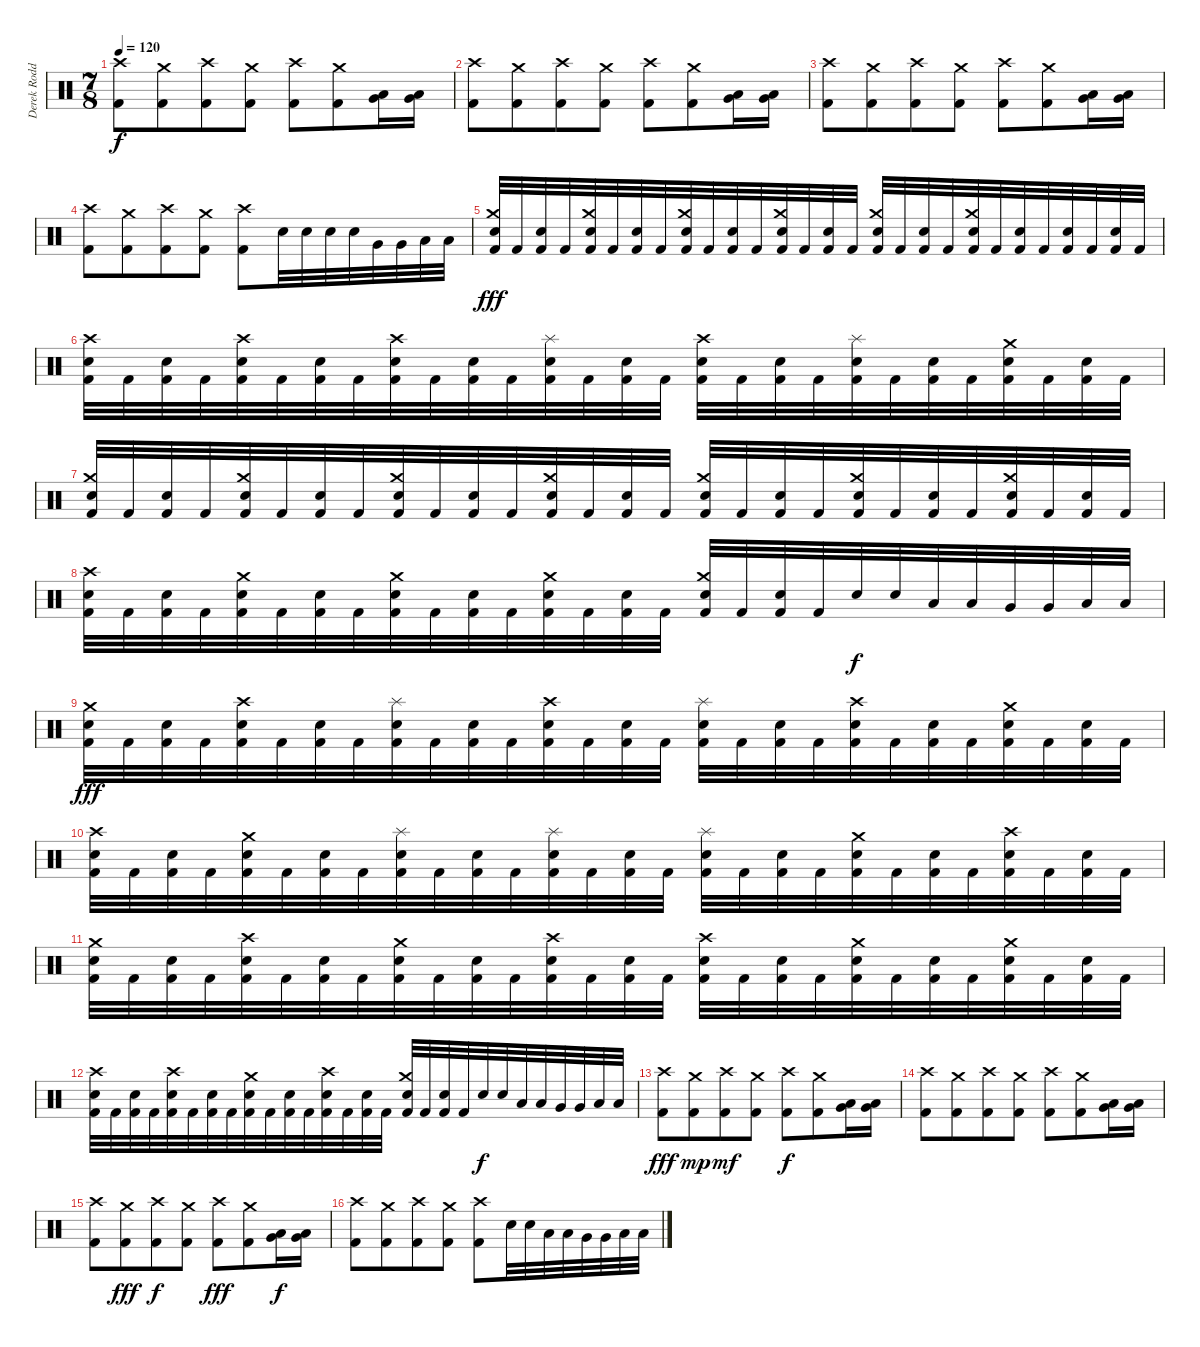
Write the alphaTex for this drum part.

\track ("Derek Roddy" "Derek Rodd") {instrument percussion}
\staff {score}
\articulation defaults
\ts (7 8)
\tempo 120
\clef neutral
\ks c
("Crash high (hit)" "Kick (hit) 2").8{dy f} ("Crash medium (hit)" "Kick (hit) 2").8 ("Crash high (hit)" "Kick (hit) 2").8 ("Crash medium (hit)" "Kick (hit) 2").8 ("Crash high (hit)" "Kick (hit) 2").8 ("Crash medium (hit)" "Kick (hit) 2").8 ("Low Tom (hit)" "Very Low Tom (hit)").16 ("Very Low Tom (hit)" "Low Floor Tom (hit)").16 |
("Crash high (hit)" "Kick (hit) 2").8 ("Crash medium (hit)" "Kick (hit) 2").8 ("Crash high (hit)" "Kick (hit) 2").8 ("Crash medium (hit)" "Kick (hit) 2").8 ("Crash high (hit)" "Kick (hit) 2").8 ("Crash medium (hit)" "Kick (hit) 2").8 ("Low Tom (hit)" "Very Low Tom (hit)").16 ("Very Low Tom (hit)" "Low Floor Tom (hit)").16 |
("Crash high (hit)" "Kick (hit) 2").8 ("Crash medium (hit)" "Kick (hit) 2").8 ("Crash high (hit)" "Kick (hit) 2").8 ("Crash medium (hit)" "Kick (hit) 2").8 ("Crash high (hit)" "Kick (hit) 2").8 ("Crash medium (hit)" "Kick (hit) 2").8 ("Low Tom (hit)" "Very Low Tom (hit)").16 ("Very Low Tom (hit)" "Low Floor Tom (hit)").16 |
("Crash high (hit)" "Kick (hit) 2").8 ("Crash medium (hit)" "Kick (hit) 2").8 ("Crash high (hit)" "Kick (hit) 2").8 ("Crash medium (hit)" "Kick (hit) 2").8 ("Crash high (hit)" "Kick (hit) 2").8 "Electric Snare (hit)".32 "Electric Snare (hit)".32 "Electric Snare (hit)".32 "Electric Snare (hit)".32 "Very Low Tom (hit)".32 "Very Low Tom (hit)".32 "Low Floor Tom (hit)".32 "Low Floor Tom (hit)".32 |
("Crash medium (hit)" "Electric Snare (hit)" "Kick (hit) 2").32{dy fff} "Kick (hit) 2".32 ("Electric Snare (hit)" "Kick (hit) 2").32 "Kick (hit) 2".32 ("Crash medium (hit)" "Electric Snare (hit)" "Kick (hit) 2").32 "Kick (hit) 2".32 ("Electric Snare (hit)" "Kick (hit) 2").32 "Kick (hit) 2".32 ("Crash medium (hit)" "Electric Snare (hit)" "Kick (hit) 2").32 "Kick (hit) 2".32 ("Electric Snare (hit)" "Kick (hit) 2").32 "Kick (hit) 2".32 ("Crash medium (hit)" "Electric Snare (hit)" "Kick (hit) 2").32 "Kick (hit) 2".32 ("Electric Snare (hit)" "Kick (hit) 2").32 "Kick (hit) 2".32 ("Crash medium (hit)" "Electric Snare (hit)" "Kick (hit) 2").32 "Kick (hit) 2".32 ("Electric Snare (hit)" "Kick (hit) 2").32 "Kick (hit) 2".32 ("Crash medium (hit)" "Electric Snare (hit)" "Kick (hit) 2").32 "Kick (hit) 2".32 ("Electric Snare (hit)" "Kick (hit) 2").32 "Kick (hit) 2".32 ("Electric Snare (hit)" "Kick (hit) 2").32 "Kick (hit) 2".32 ("Electric Snare (hit)" "Kick (hit) 2").32 "Kick (hit) 2".32 |
("Crash high (hit)" "Electric Snare (hit)" "Kick (hit) 2").32 "Kick (hit) 2".32 ("Electric Snare (hit)" "Kick (hit) 2").32 "Kick (hit) 2".32 ("Crash high (hit)" "Electric Snare (hit)" "Kick (hit) 2").32 "Kick (hit) 2".32 ("Electric Snare (hit)" "Kick (hit) 2").32 "Kick (hit) 2".32 ("Crash high (hit)" "Electric Snare (hit)" "Kick (hit) 2").32 "Kick (hit) 2".32 ("Electric Snare (hit)" "Kick (hit) 2").32 "Kick (hit) 2".32 ("Splash (hit)" "Electric Snare (hit)" "Kick (hit) 2").32 "Kick (hit) 2".32 ("Electric Snare (hit)" "Kick (hit) 2").32 "Kick (hit) 2".32 ("Crash high (hit)" "Electric Snare (hit)" "Kick (hit) 2").32 "Kick (hit) 2".32 ("Electric Snare (hit)" "Kick (hit) 2").32 "Kick (hit) 2".32 ("Splash (hit)" "Electric Snare (hit)" "Kick (hit) 2").32 "Kick (hit) 2".32 ("Electric Snare (hit)" "Kick (hit) 2").32 "Kick (hit) 2".32 ("Crash medium (hit)" "Electric Snare (hit)" "Kick (hit) 2").32 "Kick (hit) 2".32 ("Electric Snare (hit)" "Kick (hit) 2").32 "Kick (hit) 2".32 |
("Crash medium (hit)" "Electric Snare (hit)" "Kick (hit) 2").32 "Kick (hit) 2".32 ("Electric Snare (hit)" "Kick (hit) 2").32 "Kick (hit) 2".32 ("Crash medium (hit)" "Electric Snare (hit)" "Kick (hit) 2").32 "Kick (hit) 2".32 ("Electric Snare (hit)" "Kick (hit) 2").32 "Kick (hit) 2".32 ("Crash medium (hit)" "Electric Snare (hit)" "Kick (hit) 2").32 "Kick (hit) 2".32 ("Electric Snare (hit)" "Kick (hit) 2").32 "Kick (hit) 2".32 ("Crash medium (hit)" "Electric Snare (hit)" "Kick (hit) 2").32 "Kick (hit) 2".32 ("Electric Snare (hit)" "Kick (hit) 2").32 "Kick (hit) 2".32 ("Crash medium (hit)" "Electric Snare (hit)" "Kick (hit) 2").32 "Kick (hit) 2".32 ("Electric Snare (hit)" "Kick (hit) 2").32 "Kick (hit) 2".32 ("Crash medium (hit)" "Electric Snare (hit)" "Kick (hit) 2").32 "Kick (hit) 2".32 ("Electric Snare (hit)" "Kick (hit) 2").32 "Kick (hit) 2".32 ("Crash medium (hit)" "Electric Snare (hit)" "Kick (hit) 2").32 "Kick (hit) 2".32 ("Electric Snare (hit)" "Kick (hit) 2").32 "Kick (hit) 2".32 |
("Crash high (hit)" "Electric Snare (hit)" "Kick (hit) 2").32 "Kick (hit) 2".32 ("Electric Snare (hit)" "Kick (hit) 2").32 "Kick (hit) 2".32 ("Crash medium (hit)" "Electric Snare (hit)" "Kick (hit) 2").32 "Kick (hit) 2".32 ("Electric Snare (hit)" "Kick (hit) 2").32 "Kick (hit) 2".32 ("Crash medium (hit)" "Electric Snare (hit)" "Kick (hit) 2").32 "Kick (hit) 2".32 ("Electric Snare (hit)" "Kick (hit) 2").32 "Kick (hit) 2".32 ("Crash medium (hit)" "Electric Snare (hit)" "Kick (hit) 2").32 "Kick (hit) 2".32 ("Electric Snare (hit)" "Kick (hit) 2").32 "Kick (hit) 2".32 ("Crash medium (hit)" "Electric Snare (hit)" "Kick (hit) 2").32 "Kick (hit) 2".32 ("Electric Snare (hit)" "Kick (hit) 2").32 "Kick (hit) 2".32 "Electric Snare (hit)".32{dy f} "Electric Snare (hit)".32 "Low Tom (hit)".32 "Low Tom (hit)".32 "Very Low Tom (hit)".32 "Very Low Tom (hit)".32 "Low Floor Tom (hit)".32 "Low Floor Tom (hit)".32 |
("Crash medium (hit)" "Electric Snare (hit)" "Kick (hit) 2").32{dy fff} "Kick (hit) 2".32 ("Electric Snare (hit)" "Kick (hit) 2").32 "Kick (hit) 2".32 ("Crash high (hit)" "Electric Snare (hit)" "Kick (hit) 2").32 "Kick (hit) 2".32 ("Electric Snare (hit)" "Kick (hit) 2").32 "Kick (hit) 2".32 ("Splash (hit)" "Electric Snare (hit)" "Kick (hit) 2").32 "Kick (hit) 2".32 ("Electric Snare (hit)" "Kick (hit) 2").32 "Kick (hit) 2".32 ("Crash high (hit)" "Electric Snare (hit)" "Kick (hit) 2").32 "Kick (hit) 2".32 ("Electric Snare (hit)" "Kick (hit) 2").32 "Kick (hit) 2".32 ("Splash (hit)" "Electric Snare (hit)" "Kick (hit) 2").32 "Kick (hit) 2".32 ("Electric Snare (hit)" "Kick (hit) 2").32 "Kick (hit) 2".32 ("Crash high (hit)" "Electric Snare (hit)" "Kick (hit) 2").32 "Kick (hit) 2".32 ("Electric Snare (hit)" "Kick (hit) 2").32 "Kick (hit) 2".32 ("Crash medium (hit)" "Electric Snare (hit)" "Kick (hit) 2").32 "Kick (hit) 2".32 ("Electric Snare (hit)" "Kick (hit) 2").32 "Kick (hit) 2".32 |
("Crash high (hit)" "Electric Snare (hit)" "Kick (hit) 2").32 "Kick (hit) 2".32 ("Electric Snare (hit)" "Kick (hit) 2").32 "Kick (hit) 2".32 ("Crash medium (hit)" "Electric Snare (hit)" "Kick (hit) 2").32 "Kick (hit) 2".32 ("Electric Snare (hit)" "Kick (hit) 2").32 "Kick (hit) 2".32 ("Splash (hit)" "Electric Snare (hit)" "Kick (hit) 2").32 "Kick (hit) 2".32 ("Electric Snare (hit)" "Kick (hit) 2").32 "Kick (hit) 2".32 ("Splash (hit)" "Electric Snare (hit)" "Kick (hit) 2").32 "Kick (hit) 2".32 ("Electric Snare (hit)" "Kick (hit) 2").32 "Kick (hit) 2".32 ("Splash (hit)" "Electric Snare (hit)" "Kick (hit) 2").32 "Kick (hit) 2".32 ("Electric Snare (hit)" "Kick (hit) 2").32 "Kick (hit) 2".32 ("Crash medium (hit)" "Electric Snare (hit)" "Kick (hit) 2").32 "Kick (hit) 2".32 ("Electric Snare (hit)" "Kick (hit) 2").32 "Kick (hit) 2".32 ("Crash high (hit)" "Electric Snare (hit)" "Kick (hit) 2").32 "Kick (hit) 2".32 ("Electric Snare (hit)" "Kick (hit) 2").32 "Kick (hit) 2".32 |
("Crash medium (hit)" "Electric Snare (hit)" "Kick (hit) 2").32 "Kick (hit) 2".32 ("Electric Snare (hit)" "Kick (hit) 2").32 "Kick (hit) 2".32 ("Crash high (hit)" "Electric Snare (hit)" "Kick (hit) 2").32 "Kick (hit) 2".32 ("Electric Snare (hit)" "Kick (hit) 2").32 "Kick (hit) 2".32 ("Crash medium (hit)" "Electric Snare (hit)" "Kick (hit) 2").32 "Kick (hit) 2".32 ("Electric Snare (hit)" "Kick (hit) 2").32 "Kick (hit) 2".32 ("Crash high (hit)" "Electric Snare (hit)" "Kick (hit) 2").32 "Kick (hit) 2".32 ("Electric Snare (hit)" "Kick (hit) 2").32 "Kick (hit) 2".32 ("Crash high (hit)" "Electric Snare (hit)" "Kick (hit) 2").32 "Kick (hit) 2".32 ("Electric Snare (hit)" "Kick (hit) 2").32 "Kick (hit) 2".32 ("Crash medium (hit)" "Electric Snare (hit)" "Kick (hit) 2").32 "Kick (hit) 2".32 ("Electric Snare (hit)" "Kick (hit) 2").32 "Kick (hit) 2".32 ("Crash medium (hit)" "Electric Snare (hit)" "Kick (hit) 2").32 "Kick (hit) 2".32 ("Electric Snare (hit)" "Kick (hit) 2").32 "Kick (hit) 2".32 |
("Crash high (hit)" "Electric Snare (hit)" "Kick (hit) 2").32 "Kick (hit) 2".32 ("Electric Snare (hit)" "Kick (hit) 2").32 "Kick (hit) 2".32 ("Crash high (hit)" "Electric Snare (hit)" "Kick (hit) 2").32 "Kick (hit) 2".32 ("Electric Snare (hit)" "Kick (hit) 2").32 "Kick (hit) 2".32 ("Crash medium (hit)" "Electric Snare (hit)" "Kick (hit) 2").32 "Kick (hit) 2".32 ("Electric Snare (hit)" "Kick (hit) 2").32 "Kick (hit) 2".32 ("Crash high (hit)" "Electric Snare (hit)" "Kick (hit) 2").32 "Kick (hit) 2".32 ("Electric Snare (hit)" "Kick (hit) 2").32 "Kick (hit) 2".32 ("Crash medium (hit)" "Electric Snare (hit)" "Kick (hit) 2").32 "Kick (hit) 2".32 ("Electric Snare (hit)" "Kick (hit) 2").32 "Kick (hit) 2".32 "Electric Snare (hit)".32{dy f} "Electric Snare (hit)".32 "Low Tom (hit)".32 "Low Tom (hit)".32 "Very Low Tom (hit)".32 "Very Low Tom (hit)".32 "Low Floor Tom (hit)".32 "Low Floor Tom (hit)".32 |
("Crash high (hit)" "Kick (hit) 2").8{dy fff} ("Crash medium (hit)" "Kick (hit) 2").8{dy mp} ("Crash high (hit)" "Kick (hit) 2").8{dy mf} ("Crash medium (hit)" "Kick (hit) 2").8 ("Crash high (hit)" "Kick (hit) 2").8{dy f} ("Crash medium (hit)" "Kick (hit) 2").8 ("Low Tom (hit)" "Very Low Tom (hit)").16 ("Very Low Tom (hit)" "Low Floor Tom (hit)").16 |
("Crash high (hit)" "Kick (hit) 2").8 ("Crash medium (hit)" "Kick (hit) 2").8 ("Crash high (hit)" "Kick (hit) 2").8 ("Crash medium (hit)" "Kick (hit) 2").8 ("Crash high (hit)" "Kick (hit) 2").8 ("Crash medium (hit)" "Kick (hit) 2").8 ("Low Tom (hit)" "Very Low Tom (hit)").16 ("Very Low Tom (hit)" "Low Floor Tom (hit)").16 |
("Crash high (hit)" "Kick (hit) 2").8 ("Crash medium (hit)" "Kick (hit) 2").8{dy fff} ("Crash high (hit)" "Kick (hit) 2").8{dy f} ("Crash medium (hit)" "Kick (hit) 2").8 ("Crash high (hit)" "Kick (hit) 2").8{dy fff} ("Crash medium (hit)" "Kick (hit) 2").8 ("Low Tom (hit)" "Very Low Tom (hit)").16{dy f} ("Very Low Tom (hit)" "Low Floor Tom (hit)").16 |
("Crash high (hit)" "Kick (hit) 2").8 ("Crash medium (hit)" "Kick (hit) 2").8 ("Crash high (hit)" "Kick (hit) 2").8 ("Crash medium (hit)" "Kick (hit) 2").8 ("Crash high (hit)" "Kick (hit) 2").8 "Electric Snare (hit)".32 "Electric Snare (hit)".32 "Low Tom (hit)".32 "Low Tom (hit)".32 "Very Low Tom (hit)".32 "Very Low Tom (hit)".32 "Low Floor Tom (hit)".32 "Low Floor Tom (hit)".32
